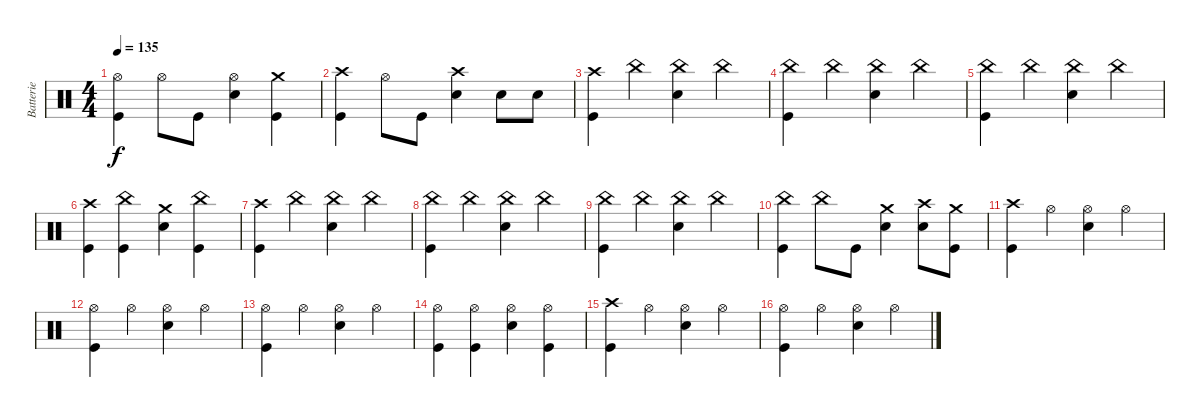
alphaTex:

\track ("Batterie" "Batterie") {instrument percussion}
\staff {score}
\articulation defaults
\ts (4 4)
\tempo 135
\clef neutral
\ks c
("Hi-Hat (open)" "Kick (hit)").4{dy f} "Hi-Hat (open)".8 "Kick (hit)".8 ("Hi-Hat (open)" "Electric Snare (hit)").4 ("Crash medium (hit)" "Kick (hit)").4 |
("Crash high (hit)" "Kick (hit)").4 "Hi-Hat (open)".8 "Kick (hit)".8 ("Crash high (hit)" "Electric Snare (hit)").4 "Electric Snare (hit)".8 "Electric Snare (hit)".8 |
("Crash high (hit)" "Kick (hit)").4 "China (hit)".4 ("China (hit)" "Electric Snare (hit)").4 "China (hit)".4 |
("China (hit)" "Kick (hit)").4 "China (hit)".4 ("China (hit)" "Electric Snare (hit)").4 "China (hit)".4 |
("China (hit)" "Kick (hit)").4 "China (hit)".4 ("China (hit)" "Electric Snare (hit)").4 "China (hit)".4 |
("Crash high (hit)" "Kick (hit)").4 ("China (hit)" "Kick (hit)").4 ("Crash medium (hit)" "Electric Snare (hit)").4 ("China (hit)" "Kick (hit)").4 |
("Crash high (hit)" "Kick (hit)").4 "China (hit)".4 ("China (hit)" "Electric Snare (hit)").4 "China (hit)".4 |
("China (hit)" "Kick (hit)").4 "China (hit)".4 ("China (hit)" "Electric Snare (hit)").4 "China (hit)".4 |
("China (hit)" "Kick (hit)").4 "China (hit)".4 ("China (hit)" "Electric Snare (hit)").4 "China (hit)".4 |
("China (hit)" "Kick (hit)").4 "China (hit)".8 "Kick (hit)".8 ("Crash medium (hit)" "Electric Snare (hit)").4 ("Crash high (hit)" "Electric Snare (hit)").8 ("Crash medium (hit)" "Kick (hit)").8 |
("Crash high (hit)" "Kick (hit)").4 "Hi-Hat (open)".4 ("Hi-Hat (open)" "Electric Snare (hit)").4 "Hi-Hat (open)".4 |
("Hi-Hat (open)" "Kick (hit)").4 "Hi-Hat (open)".4 ("Hi-Hat (open)" "Electric Snare (hit)").4 "Hi-Hat (open)".4 |
("Hi-Hat (open)" "Kick (hit)").4 "Hi-Hat (open)".4 ("Hi-Hat (open)" "Electric Snare (hit)").4 "Hi-Hat (open)".4 |
("Hi-Hat (open)" "Kick (hit)").4 ("Hi-Hat (open)" "Kick (hit)").4 ("Hi-Hat (open)" "Electric Snare (hit)").4 ("Hi-Hat (open)" "Kick (hit)").4 |
("Crash high (hit)" "Kick (hit)").4 "Hi-Hat (open)".4 ("Hi-Hat (open)" "Electric Snare (hit)").4 "Hi-Hat (open)".4 |
("Hi-Hat (open)" "Kick (hit)").4 "Hi-Hat (open)".4 ("Hi-Hat (open)" "Electric Snare (hit)").4 "Hi-Hat (open)".4
